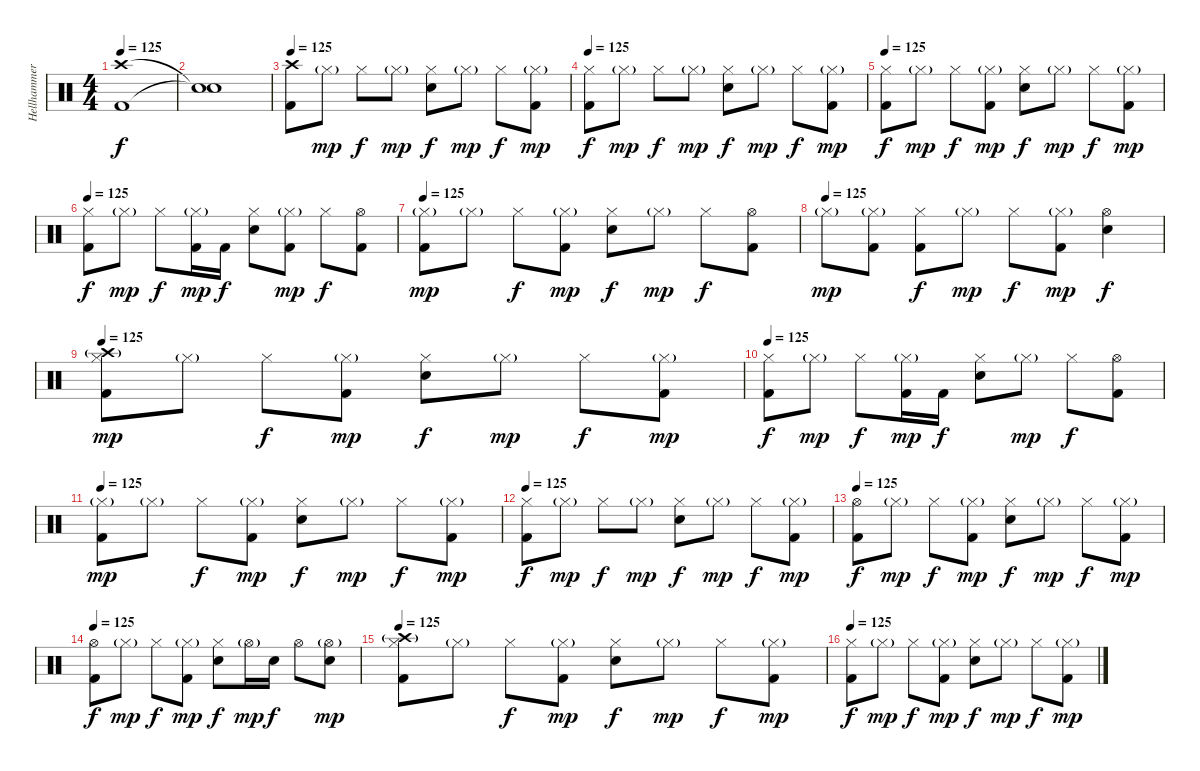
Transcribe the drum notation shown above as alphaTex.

\track ("Hellhammer" "Hellhammer") {instrument percussion}
\staff {score}
\articulation defaults
\ts (4 4)
\tempo 125
\clef neutral
\ks c
("Kick (hit) 2" "Crash high (hit)").1{dy f} |
("Snare (hit)"{t} "Snare (hit)"{t}).1 |
\tempo 125
("Kick (hit) 2" "Crash high (hit)").8 "Hi-Hat (closed)"{g}.8{dy mp} "Hi-Hat (closed)".8{dy f} "Hi-Hat (closed)"{g}.8{dy mp} ("Electric Snare (hit)" "Hi-Hat (closed)").8{dy f} "Hi-Hat (closed)"{g}.8{dy mp} "Hi-Hat (closed)".8{dy f} ("Kick (hit) 2" "Hi-Hat (closed)"{g}).8{dy mp} |
\tempo 125
("Kick (hit) 2" "Hi-Hat (closed)").8{dy f} "Hi-Hat (closed)"{g}.8{dy mp} "Hi-Hat (closed)".8{dy f} "Hi-Hat (closed)"{g}.8{dy mp} ("Electric Snare (hit)" "Hi-Hat (closed)").8{dy f} "Hi-Hat (closed)"{g}.8{dy mp} "Hi-Hat (closed)".8{dy f} ("Kick (hit) 2" "Hi-Hat (closed)"{g}).8{dy mp} |
\tempo 125
("Kick (hit) 2" "Hi-Hat (closed)").8{dy f} "Hi-Hat (closed)"{g}.8{dy mp} "Hi-Hat (closed)".8{dy f} ("Kick (hit) 2" "Hi-Hat (closed)"{g}).8{dy mp} ("Electric Snare (hit)" "Hi-Hat (closed)").8{dy f} "Hi-Hat (closed)"{g}.8{dy mp} "Hi-Hat (closed)".8{dy f} ("Kick (hit) 2" "Hi-Hat (closed)"{g}).8{dy mp} |
\tempo 125
("Kick (hit) 2" "Hi-Hat (closed)").8{dy f} "Hi-Hat (closed)"{g}.8{dy mp} "Hi-Hat (closed)".8{dy f} ("Kick (hit) 2" "Hi-Hat (closed)"{g}).16{dy mp} "Kick (hit) 2".16{dy f} ("Electric Snare (hit)" "Hi-Hat (closed)").8 ("Kick (hit) 2" "Hi-Hat (closed)"{g}).8{dy mp} "Hi-Hat (closed)".8{dy f} ("Kick (hit) 2" "Hi-Hat (open)").8 |
\tempo 125
("Kick (hit) 2" "Hi-Hat (closed)"{g}).8{dy mp} "Hi-Hat (closed)"{g}.8 "Hi-Hat (closed)".8{dy f} ("Kick (hit) 2" "Hi-Hat (closed)"{g}).8{dy mp} ("Electric Snare (hit)" "Hi-Hat (closed)").8{dy f} "Hi-Hat (closed)"{g}.8{dy mp} "Hi-Hat (closed)".8{dy f} ("Kick (hit) 2" "Hi-Hat (open)").8 |
\tempo (125)
"Hi-Hat (closed)"{g}.8{dy mp} ("Kick (hit) 2" "Hi-Hat (closed)"{g}).8 ("Kick (hit) 2" "Hi-Hat (closed)").8{dy f} "Hi-Hat (closed)"{g}.8{dy mp} "Hi-Hat (closed)".8{dy f} ("Kick (hit) 2" "Hi-Hat (closed)"{g}).8{dy mp} ("Electric Snare (hit)" "Hi-Hat (open)").4{dy f} |
\tempo 125
("Kick (hit) 2" "Hi-Hat (closed)" "Crash high (hit)"{g}).8{dy mp} "Hi-Hat (closed)"{g}.8 "Hi-Hat (closed)".8{dy f} ("Kick (hit) 2" "Hi-Hat (closed)"{g}).8{dy mp} ("Electric Snare (hit)" "Hi-Hat (closed)").8{dy f} "Hi-Hat (closed)"{g}.8{dy mp} "Hi-Hat (closed)".8{dy f} ("Kick (hit) 2" "Hi-Hat (closed)"{g}).8{dy mp} |
\tempo 125
("Kick (hit) 2" "Hi-Hat (closed)").8{dy f} "Hi-Hat (closed)"{g}.8{dy mp} "Hi-Hat (closed)".8{dy f} ("Kick (hit) 2" "Hi-Hat (closed)"{g}).16{dy mp} "Kick (hit) 2".16{dy f} ("Electric Snare (hit)" "Hi-Hat (closed)").8 "Hi-Hat (closed)"{g}.8{dy mp} "Hi-Hat (closed)".8{dy f} ("Kick (hit) 2" "Hi-Hat (open)").8 |
\tempo 125
("Kick (hit) 2" "Hi-Hat (closed)"{g}).8{dy mp} "Hi-Hat (closed)"{g}.8 "Hi-Hat (closed)".8{dy f} ("Kick (hit) 2" "Hi-Hat (closed)"{g}).8{dy mp} ("Electric Snare (hit)" "Hi-Hat (closed)").8{dy f} "Hi-Hat (closed)"{g}.8{dy mp} "Hi-Hat (closed)".8{dy f} ("Kick (hit) 2" "Hi-Hat (closed)"{g}).8{dy mp} |
\tempo 125
("Kick (hit) 2" "Hi-Hat (closed)").8{dy f} "Hi-Hat (closed)"{g}.8{dy mp} "Hi-Hat (closed)".8{dy f} "Hi-Hat (closed)"{g}.8{dy mp} ("Electric Snare (hit)" "Hi-Hat (closed)").8{dy f} "Hi-Hat (closed)"{g}.8{dy mp} "Hi-Hat (closed)".8{dy f} ("Kick (hit) 2" "Hi-Hat (closed)"{g}).8{dy mp} |
\tempo 125
("Kick (hit) 2" "Hi-Hat (open)").8{dy f} "Hi-Hat (closed)"{g}.8{dy mp} "Hi-Hat (closed)".8{dy f} ("Kick (hit) 2" "Hi-Hat (closed)"{g}).8{dy mp} ("Electric Snare (hit)" "Hi-Hat (closed)").8{dy f} "Hi-Hat (closed)"{g}.8{dy mp} "Hi-Hat (closed)".8{dy f} ("Kick (hit) 2" "Hi-Hat (closed)"{g}).8{dy mp} |
\tempo 125
("Kick (hit) 2" "Hi-Hat (open)").8{dy f} "Hi-Hat (closed)"{g}.8{dy mp} "Hi-Hat (closed)".8{dy f} ("Kick (hit) 2" "Hi-Hat (closed)"{g}).8{dy mp} ("Electric Snare (hit)" "Hi-Hat (closed)").8{dy f} "Hi-Hat (open)"{g}.16{dy mp} "Electric Snare (hit)".16{dy f} "Hi-Hat (open)".8 ("Electric Snare (hit)" "Hi-Hat (open)"{g}).8{dy mp} |
\tempo 125
("Kick (hit) 2" "Hi-Hat (closed)" "Crash high (hit)"{g}).8 "Hi-Hat (closed)"{g}.8 "Hi-Hat (closed)".8{dy f} ("Kick (hit) 2" "Hi-Hat (closed)"{g}).8{dy mp} ("Electric Snare (hit)" "Hi-Hat (closed)").8{dy f} "Hi-Hat (closed)"{g}.8{dy mp} "Hi-Hat (closed)".8{dy f} ("Kick (hit) 2" "Hi-Hat (closed)"{g}).8{dy mp} |
\tempo 125
("Kick (hit) 2" "Hi-Hat (closed)").8{dy f} "Hi-Hat (closed)"{g}.8{dy mp} "Hi-Hat (closed)".8{dy f} ("Kick (hit) 2" "Hi-Hat (closed)"{g}).8{dy mp} ("Electric Snare (hit)" "Hi-Hat (closed)").8{dy f} "Hi-Hat (closed)"{g}.8{dy mp} "Hi-Hat (closed)".8{dy f} ("Kick (hit) 2" "Hi-Hat (closed)"{g}).8{dy mp}
